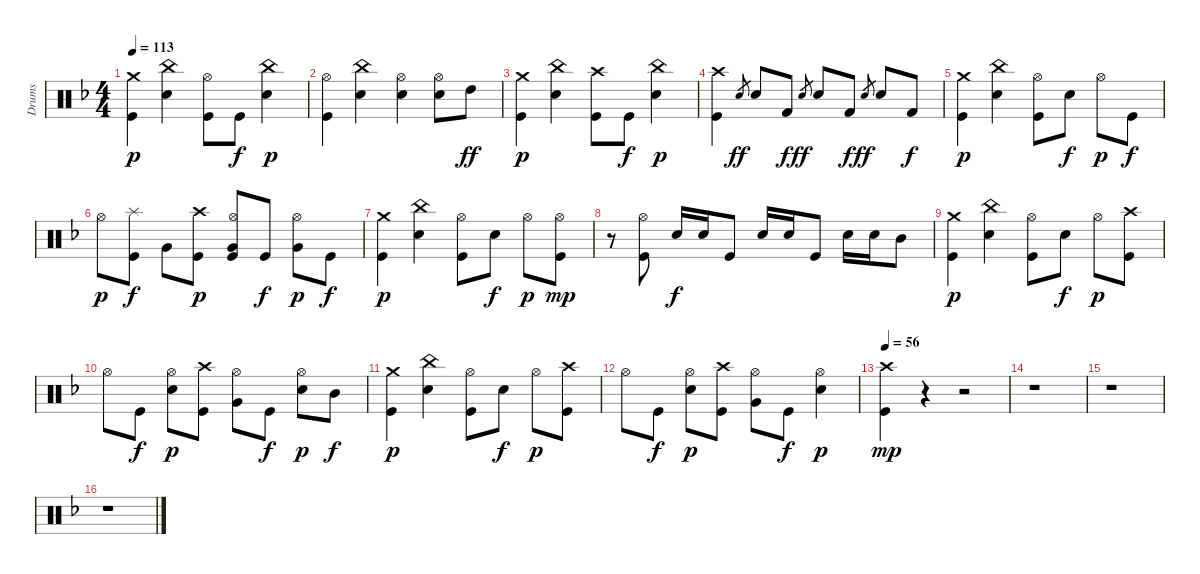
\track ("Drums" "Drums") {instrument percussion}
\staff {score}
\articulation defaults
\ts (4 4)
\tempo 113
\clef neutral
\ks dminor
("Kick (hit)" "Crash medium (hit)").4{dy p} ("China (hit)" "Electric Snare (hit)").4 ("Kick (hit)" "Hi-Hat (open)").8 "Kick (hit)".8{dy f} ("Electric Snare (hit)" "China (hit)").4{dy p} |
("Kick (hit)" "Hi-Hat (open)").4 ("China (hit)" "Electric Snare (hit)").4 ("Hi-Hat (open)" "Electric Snare (hit)").4 ("Electric Snare (hit)" "Hi-Hat (open)").8 "High Tom (hit)".8{dy ff} |
("Kick (hit)" "Crash medium (hit)").4{dy p} ("China (hit)" "Electric Snare (hit)").4 ("Kick (hit)" "Crash high (hit)").8 "Kick (hit)".8{dy f} ("Electric Snare (hit)" "China (hit)").4{dy p} |
("Kick (hit)" "Crash high (hit)").4 "Electric Snare (hit)".8{gr dy ff} "Electric Snare (hit)".8 "Kick (hit) 2".8{dy f} "Electric Snare (hit)".8{gr dy ff} "Electric Snare (hit)".8 "Kick (hit) 2".8{dy f} "Electric Snare (hit)".8{gr dy ff} "Electric Snare (hit)".8 "Kick (hit) 2".8{dy f} |
("Kick (hit)" "Crash medium (hit)").4{dy p} ("China (hit)" "Electric Snare (hit)").4 ("Kick (hit)" "Hi-Hat (open)").8 "Electric Snare (hit)".8{dy f} "Hi-Hat (open)".8{dy p} "Kick (hit)".8{dy f} |
"Hi-Hat (open)".8{dy p} ("Kick (hit)" "Splash (hit)").8{dy f} "Very Low Tom (hit)".8 ("Kick (hit)" "Crash high (hit)").8{dy p} ("Kick (hit)" "Hi-Hat (open)" "Very Low Tom (hit)").8 "Kick (hit)".8{dy f} ("Very Low Tom (hit)" "Hi-Hat (open)").8{dy p} "Kick (hit)".8{dy f} |
("Kick (hit)" "Crash medium (hit)").4{dy p} ("China (hit)" "Electric Snare (hit)").4 ("Kick (hit)" "Hi-Hat (open)").8 "Electric Snare (hit)".8{dy f} "Hi-Hat (open)".8{dy p} ("Kick (hit)" "Hi-Hat (open)").8{dy mp} |
r.8 ("Kick (hit)" "Hi-Hat (open)").8 "Electric Snare (hit)".16{dy f} "Electric Snare (hit)".16 "Kick (hit)".8 "Electric Snare (hit)".16 "Electric Snare (hit)".16 "Kick (hit)".8 "Electric Snare (hit)".16 "Electric Snare (hit)".16 "Mid Tom (hit)".8 |
("Kick (hit)" "Crash medium (hit)").4{dy p} ("China (hit)" "Electric Snare (hit)").4 ("Kick (hit)" "Hi-Hat (open)").8 "Electric Snare (hit)".8{dy f} "Hi-Hat (open)".8{dy p} ("Kick (hit)" "Crash high (hit)").8 |
"Hi-Hat (open)".8 "Kick (hit)".8{dy f} ("Electric Snare (hit)" "Hi-Hat (open)").8{dy p} ("Kick (hit)" "Crash high (hit)").8 ("Hi-Hat (open)" "Very Low Tom (hit)").8 "Kick (hit)".8{dy f} ("Hi-Hat (open)" "Electric Snare (hit)").8{dy p} "Mid Tom (hit)".8{dy f} |
("Kick (hit)" "Crash medium (hit)").4{dy p} ("China (hit)" "Electric Snare (hit)").4 ("Kick (hit)" "Hi-Hat (open)").8 "Electric Snare (hit)".8{dy f} "Hi-Hat (open)".8{dy p} ("Kick (hit)" "Crash high (hit)").8 |
"Hi-Hat (open)".8 "Kick (hit)".8{dy f} ("Electric Snare (hit)" "Hi-Hat (open)").8{dy p} ("Kick (hit)" "Crash high (hit)").8 ("Hi-Hat (open)" "Very Low Tom (hit)").8 "Kick (hit)".8{dy f} ("Hi-Hat (open)" "Electric Snare (hit)").4{dy p} |
\tempo 56
("Kick (hit)" "Crash high (hit)").4{dy mp} r.4 r.2 |
r.1 |
r.1 |
r.1
